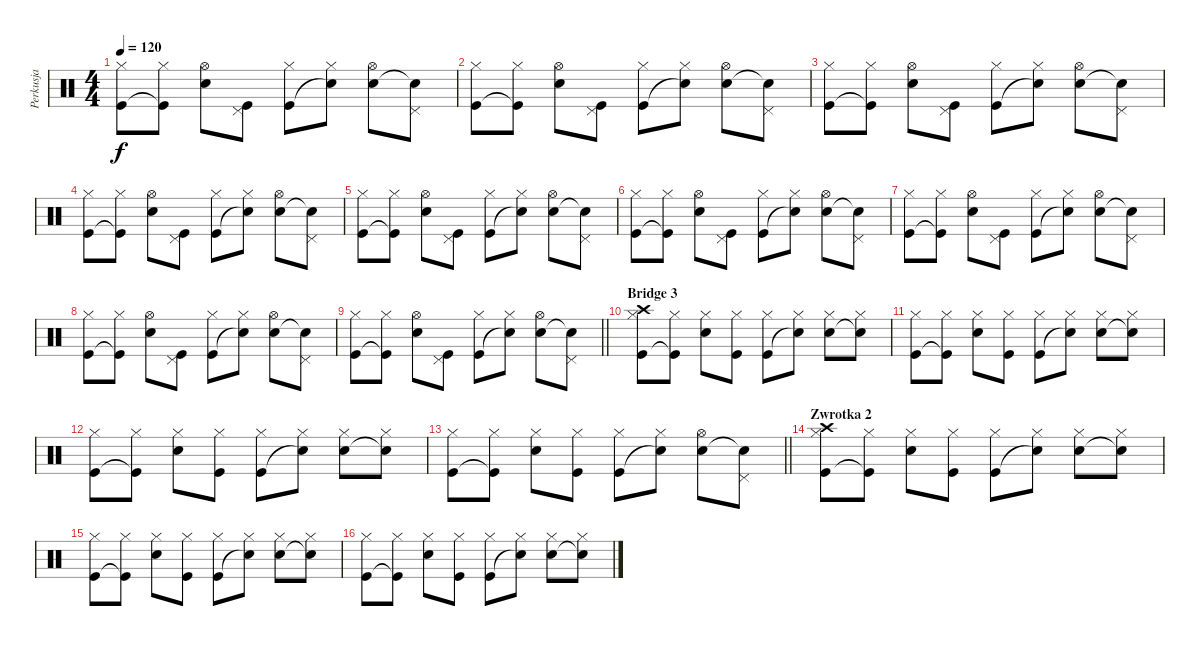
\track ("Perkusja" "Perkusja") {instrument percussion}
\staff {score}
\articulation defaults
\ts (4 4)
\tempo 120
\clef neutral
\ks c
("Kick (hit)" "Hi-Hat (closed)").8{dy f} ("Kick (hit)"{t} "Hi-Hat (closed)").8 ("Snare (hit) 2" "Hi-Hat (open)").8 ("Kick (hit)" "Pedal Hi-Hat (hit)").8 ("Kick (hit)" "Hi-Hat (closed)").8 ("Snare (hit)"{t} "Hi-Hat (closed)").8 ("Snare (hit) 2" "Hi-Hat (open)").8 ("Snare (hit)"{t} "Pedal Hi-Hat (hit)").8 |
("Kick (hit)" "Hi-Hat (closed)").8 ("Kick (hit)"{t} "Hi-Hat (closed)").8 ("Snare (hit) 2" "Hi-Hat (open)").8 ("Kick (hit)" "Pedal Hi-Hat (hit)").8 ("Kick (hit)" "Hi-Hat (closed)").8 ("Snare (hit)"{t} "Hi-Hat (closed)").8 ("Snare (hit) 2" "Hi-Hat (open)").8 ("Snare (hit)"{t} "Pedal Hi-Hat (hit)").8 |
("Kick (hit)" "Hi-Hat (closed)").8 ("Kick (hit)"{t} "Hi-Hat (closed)").8 ("Snare (hit) 2" "Hi-Hat (open)").8 ("Kick (hit)" "Pedal Hi-Hat (hit)").8 ("Kick (hit)" "Hi-Hat (closed)").8 ("Snare (hit)"{t} "Hi-Hat (closed)").8 ("Snare (hit) 2" "Hi-Hat (open)").8 ("Snare (hit)"{t} "Pedal Hi-Hat (hit)").8 |
("Kick (hit)" "Hi-Hat (closed)").8 ("Kick (hit)"{t} "Hi-Hat (closed)").8 ("Snare (hit) 2" "Hi-Hat (open)").8 ("Kick (hit)" "Pedal Hi-Hat (hit)").8 ("Kick (hit)" "Hi-Hat (closed)").8 ("Snare (hit)"{t} "Hi-Hat (closed)").8 ("Snare (hit) 2" "Hi-Hat (open)").8 ("Snare (hit)"{t} "Pedal Hi-Hat (hit)").8 |
("Kick (hit)" "Hi-Hat (closed)").8 ("Kick (hit)"{t} "Hi-Hat (closed)").8 ("Snare (hit) 2" "Hi-Hat (open)").8 ("Kick (hit)" "Pedal Hi-Hat (hit)").8 ("Kick (hit)" "Hi-Hat (closed)").8 ("Snare (hit)"{t} "Hi-Hat (closed)").8 ("Snare (hit) 2" "Hi-Hat (open)").8 ("Snare (hit)"{t} "Pedal Hi-Hat (hit)").8 |
("Kick (hit)" "Hi-Hat (closed)").8 ("Kick (hit)"{t} "Hi-Hat (closed)").8 ("Snare (hit) 2" "Hi-Hat (open)").8 ("Kick (hit)" "Pedal Hi-Hat (hit)").8 ("Kick (hit)" "Hi-Hat (closed)").8 ("Snare (hit)"{t} "Hi-Hat (closed)").8 ("Snare (hit) 2" "Hi-Hat (open)").8 ("Snare (hit)"{t} "Pedal Hi-Hat (hit)").8 |
("Kick (hit)" "Hi-Hat (closed)").8 ("Kick (hit)"{t} "Hi-Hat (closed)").8 ("Snare (hit) 2" "Hi-Hat (open)").8 ("Kick (hit)" "Pedal Hi-Hat (hit)").8 ("Kick (hit)" "Hi-Hat (closed)").8 ("Snare (hit)"{t} "Hi-Hat (closed)").8 ("Snare (hit) 2" "Hi-Hat (open)").8 ("Snare (hit)"{t} "Pedal Hi-Hat (hit)").8 |
("Kick (hit)" "Hi-Hat (closed)").8 ("Kick (hit)"{t} "Hi-Hat (closed)").8 ("Snare (hit) 2" "Hi-Hat (open)").8 ("Kick (hit)" "Pedal Hi-Hat (hit)").8 ("Kick (hit)" "Hi-Hat (closed)").8 ("Snare (hit)"{t} "Hi-Hat (closed)").8 ("Snare (hit) 2" "Hi-Hat (open)").8 ("Snare (hit)"{t} "Pedal Hi-Hat (hit)").8 |
\barLineRight lightlight
("Kick (hit)" "Hi-Hat (closed)").8 ("Kick (hit)"{t} "Hi-Hat (closed)").8 ("Snare (hit) 2" "Hi-Hat (open)").8 ("Kick (hit)" "Pedal Hi-Hat (hit)").8 ("Kick (hit)" "Hi-Hat (closed)").8 ("Snare (hit)"{t} "Hi-Hat (closed)").8 ("Snare (hit) 2" "Hi-Hat (open)").8 ("Snare (hit)"{t} "Pedal Hi-Hat (hit)").8 |
\section ("" "Bridge 3")
("Kick (hit)" "Hi-Hat (closed)" "Crash high (hit)").8 ("Kick (hit)"{t} "Hi-Hat (closed)").8 ("Snare (hit) 2" "Hi-Hat (closed)").8 ("Kick (hit)" "Hi-Hat (closed)").8 ("Kick (hit)" "Hi-Hat (closed)").8 ("Snare (hit)"{t} "Hi-Hat (closed)").8 ("Snare (hit) 2" "Hi-Hat (closed)").8 ("Snare (hit)"{t} "Hi-Hat (closed)").8 |
("Kick (hit)" "Hi-Hat (closed)").8 ("Kick (hit)"{t} "Hi-Hat (closed)").8 ("Snare (hit) 2" "Hi-Hat (closed)").8 ("Kick (hit)" "Hi-Hat (closed)").8 ("Kick (hit)" "Hi-Hat (closed)").8 ("Snare (hit)"{t} "Hi-Hat (closed)").8 ("Snare (hit) 2" "Hi-Hat (closed)").8 ("Snare (hit)"{t} "Hi-Hat (closed)").8 |
("Kick (hit)" "Hi-Hat (closed)").8 ("Kick (hit)"{t} "Hi-Hat (closed)").8 ("Snare (hit) 2" "Hi-Hat (closed)").8 ("Kick (hit)" "Hi-Hat (closed)").8 ("Kick (hit)" "Hi-Hat (closed)").8 ("Snare (hit)"{t} "Hi-Hat (closed)").8 ("Snare (hit) 2" "Hi-Hat (closed)").8 ("Snare (hit)"{t} "Hi-Hat (closed)").8 |
\barLineRight lightlight
("Kick (hit)" "Hi-Hat (closed)").8 ("Kick (hit)"{t} "Hi-Hat (closed)").8 ("Snare (hit) 2" "Hi-Hat (closed)").8 ("Kick (hit)" "Hi-Hat (closed)").8 ("Kick (hit)" "Hi-Hat (closed)").8 ("Snare (hit)"{t} "Hi-Hat (closed)").8 ("Snare (hit) 2" "Hi-Hat (open)").8 ("Snare (hit)"{t} "Pedal Hi-Hat (hit)").8 |
\section ("" "Zwrotka 2")
("Kick (hit)" "Hi-Hat (closed)" "Crash high (hit)").8 ("Kick (hit)"{t} "Hi-Hat (closed)").8 ("Snare (hit) 2" "Hi-Hat (closed)").8 ("Kick (hit)" "Hi-Hat (closed)").8 ("Kick (hit)" "Hi-Hat (closed)").8 ("Snare (hit)"{t} "Hi-Hat (closed)").8 ("Snare (hit) 2" "Hi-Hat (closed)").8 ("Snare (hit)"{t} "Hi-Hat (closed)").8 |
("Kick (hit)" "Hi-Hat (closed)").8 ("Kick (hit)"{t} "Hi-Hat (closed)").8 ("Snare (hit) 2" "Hi-Hat (closed)").8 ("Kick (hit)" "Hi-Hat (closed)").8 ("Kick (hit)" "Hi-Hat (closed)").8 ("Snare (hit)"{t} "Hi-Hat (closed)").8 ("Snare (hit) 2" "Hi-Hat (closed)").8 ("Snare (hit)"{t} "Hi-Hat (closed)").8 |
("Kick (hit)" "Hi-Hat (closed)").8 ("Kick (hit)"{t} "Hi-Hat (closed)").8 ("Snare (hit) 2" "Hi-Hat (closed)").8 ("Kick (hit)" "Hi-Hat (closed)").8 ("Kick (hit)" "Hi-Hat (closed)").8 ("Snare (hit)"{t} "Hi-Hat (closed)").8 ("Snare (hit) 2" "Hi-Hat (closed)").8 ("Snare (hit)"{t} "Hi-Hat (closed)").8
